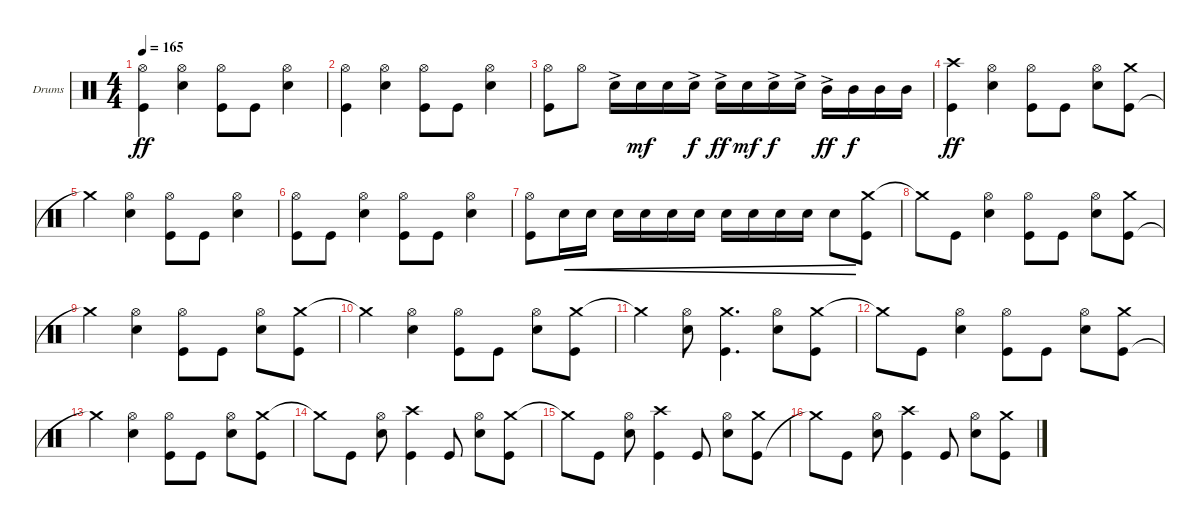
\bracketExtendMode groupsimilarinstruments
\firstSystemTrackNameOrientation horizontal
\otherSystemsTrackNameOrientation horizontal
\track ("Drumkit" "Drums") {instrument percussion}
\staff {score}
\articulation defaults
\ts (4 4)
\tempo 165
\clef neutral
\ks c
("Hi-Hat (open)" "Kick (hit)").4{dy ff} ("Hi-Hat (open)" "Snare (hit) 2").4 ("Hi-Hat (open)" "Kick (hit)").8 "Kick (hit)".8 ("Snare (hit) 2" "Hi-Hat (open)").4 |
("Hi-Hat (open)" "Kick (hit)").4 ("Hi-Hat (open)" "Snare (hit) 2").4 ("Hi-Hat (open)" "Kick (hit)").8 "Kick (hit)".8 ("Snare (hit) 2" "Hi-Hat (open)").4 |
("Hi-Hat (open)" "Kick (hit)").8 "Hi-Hat (open)".8 "Snare (hit) 2"{ac}.16 "Snare (hit) 2".16{dy mf} "Snare (hit) 2".16 "Snare (hit) 2"{ac}.16{dy f} "Snare (hit) 2"{ac}.16{dy ff} "Snare (hit) 2".16{dy mf} "Snare (hit) 2"{ac}.16{dy f} "Snare (hit) 2"{ac}.16 "Mid Tom (hit)"{ac}.16{dy ff} "Mid Tom (hit)".16{dy f} "Mid Tom (hit)".16 "Mid Tom (hit)".16 |
("Kick (hit)" "Crash high (hit)").4{dy ff} ("Snare (hit) 2" "Hi-Hat (open)").4 ("Kick (hit)" "Hi-Hat (open)").8 "Kick (hit)".8 ("Hi-Hat (open)" "Snare (hit) 2").8 ("Kick (hit)" "Crash medium (hit)").8 |
"Crash medium (hit)"{t}.4 ("Hi-Hat (open)" "Snare (hit) 2").4 ("Kick (hit)" "Hi-Hat (open)").8 "Kick (hit)".8 ("Hi-Hat (open)" "Snare (hit) 2").4 |
("Kick (hit)" "Hi-Hat (open)").8 "Kick (hit)".8 ("Snare (hit) 2" "Hi-Hat (open)").4 ("Kick (hit)" "Hi-Hat (open)").8 "Kick (hit)".8 ("Hi-Hat (open)" "Snare (hit) 2").4 |
("Kick (hit)" "Hi-Hat (open)").8 "Snare (hit) 2".16{cre} "Snare (hit) 2".16{cre} "Snare (hit) 2".16{cre} "Snare (hit) 2".16{cre} "Snare (hit) 2".16{cre} "Snare (hit) 2".16{cre} "Snare (hit) 2".16{cre} "Snare (hit) 2".16{cre} "Snare (hit) 2".16{cre} "Snare (hit) 2".16{cre} "Snare (hit) 2".8{cre} ("Crash medium (hit)" "Kick (hit)").8 |
"Crash medium (hit)"{t}.8 "Kick (hit)".8 ("Hi-Hat (open)" "Snare (hit) 2").4 ("Hi-Hat (open)" "Kick (hit)").8 "Kick (hit)".8 ("Snare (hit) 2" "Hi-Hat (open)").8 ("Kick (hit)" "Crash medium (hit)").8 |
"Crash medium (hit)"{t}.4 ("Snare (hit) 2" "Hi-Hat (open)").4 ("Hi-Hat (open)" "Kick (hit)").8 "Kick (hit)".8 ("Snare (hit) 2" "Hi-Hat (open)").8 ("Crash medium (hit)" "Kick (hit)").8 |
"Crash medium (hit)"{t}.4 ("Snare (hit) 2" "Hi-Hat (open)").4 ("Kick (hit)" "Hi-Hat (open)").8 "Kick (hit)".8 ("Hi-Hat (open)" "Snare (hit) 2").8 ("Crash medium (hit)" "Kick (hit)").8 |
"Crash medium (hit)"{t}.4 ("Snare (hit) 2" "Hi-Hat (open)").8 ("Crash medium (hit)" "Kick (hit)").4{d} ("Snare (hit) 2" "Hi-Hat (open)").8 ("Crash medium (hit)" "Kick (hit)").8 |
"Crash medium (hit)"{t}.8 "Kick (hit)".8 ("Hi-Hat (open)" "Snare (hit) 2").4 ("Hi-Hat (open)" "Kick (hit)").8 "Kick (hit)".8 ("Snare (hit) 2" "Hi-Hat (open)").8 ("Kick (hit)" "Crash medium (hit)").8 |
"Crash medium (hit)"{t}.4 ("Snare (hit) 2" "Hi-Hat (open)").4 ("Hi-Hat (open)" "Kick (hit)").8 "Kick (hit)".8 ("Snare (hit) 2" "Hi-Hat (open)").8 ("Crash medium (hit)" "Kick (hit)").8 |
"Crash medium (hit)"{t}.8 "Kick (hit)".8 ("Hi-Hat (open)" "Snare (hit) 2").8 ("Kick (hit)" "Crash high (hit)").4 "Kick (hit)".8 ("Hi-Hat (open)" "Snare (hit) 2").8 ("Crash medium (hit)" "Kick (hit)").8 |
"Crash medium (hit)"{t}.8 "Kick (hit)".8 ("Snare (hit) 2" "Hi-Hat (open)").8 ("Kick (hit)" "Crash high (hit)").4 "Kick (hit)".8 ("Hi-Hat (open)" "Snare (hit) 2").8 ("Kick (hit)" "Crash medium (hit)").8 |
"Crash medium (hit)"{t}.8 "Kick (hit)".8 ("Snare (hit) 2" "Hi-Hat (open)").8 ("Kick (hit)" "Crash high (hit)").4 "Kick (hit)".8 ("Snare (hit) 2" "Hi-Hat (open)").8 ("Kick (hit)" "Crash medium (hit)").8
